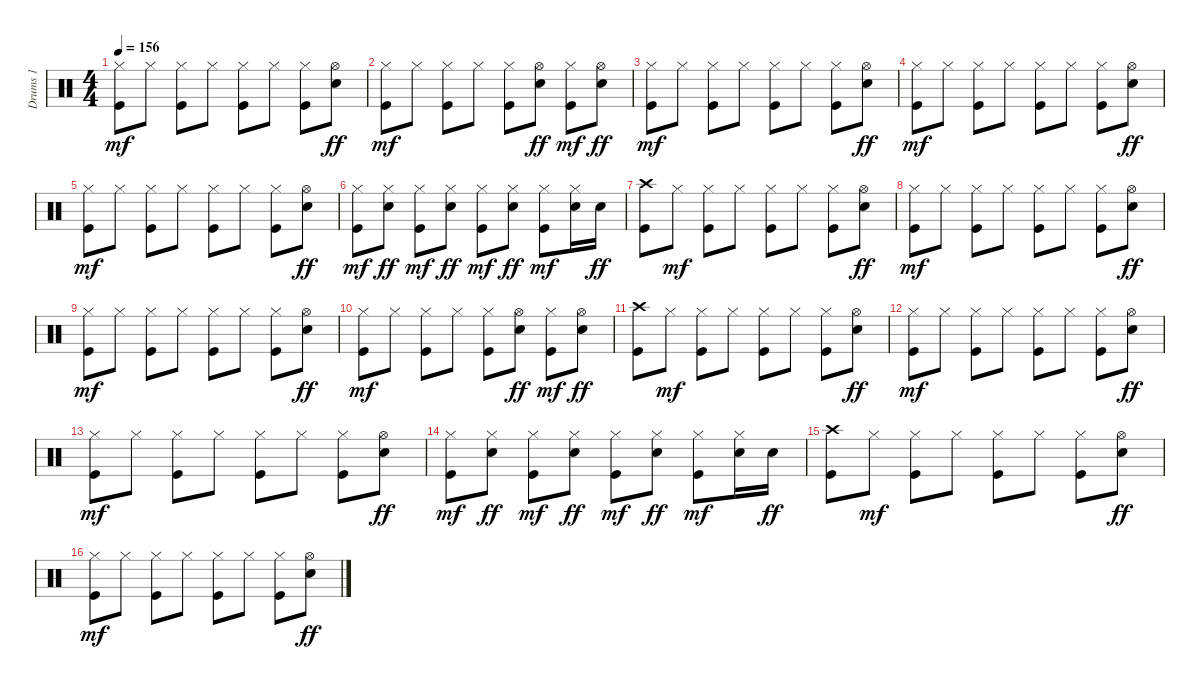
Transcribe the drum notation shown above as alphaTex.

\track ("Drums 1" "Drums 1") {instrument percussion}
\staff {score}
\articulation defaults
\ts (4 4)
\tempo 156
\clef neutral
\ks c
("Kick (hit)" "Hi-Hat (closed)").8{dy mf} "Hi-Hat (closed)".8 ("Kick (hit)" "Hi-Hat (closed)").8 "Hi-Hat (closed)".8 ("Kick (hit)" "Hi-Hat (closed)").8 "Hi-Hat (closed)".8 ("Kick (hit)" "Hi-Hat (closed)").8 ("Electric Snare (hit)" "Hi-Hat (open)").8{dy ff} |
("Kick (hit)" "Hi-Hat (closed)").8{dy mf} "Hi-Hat (closed)".8 ("Kick (hit)" "Hi-Hat (closed)").8 "Hi-Hat (closed)".8 ("Kick (hit)" "Hi-Hat (closed)").8 ("Hi-Hat (open)" "Electric Snare (hit)").8{dy ff} ("Kick (hit)" "Hi-Hat (closed)").8{dy mf} ("Hi-Hat (open)" "Electric Snare (hit)").8{dy ff} |
("Kick (hit)" "Hi-Hat (closed)").8{dy mf} "Hi-Hat (closed)".8 ("Kick (hit)" "Hi-Hat (closed)").8 "Hi-Hat (closed)".8 ("Kick (hit)" "Hi-Hat (closed)").8 "Hi-Hat (closed)".8 ("Kick (hit)" "Hi-Hat (closed)").8 ("Electric Snare (hit)" "Hi-Hat (open)").8{dy ff} |
("Kick (hit)" "Hi-Hat (closed)").8{dy mf} "Hi-Hat (closed)".8 ("Kick (hit)" "Hi-Hat (closed)").8 "Hi-Hat (closed)".8 ("Kick (hit)" "Hi-Hat (closed)").8 "Hi-Hat (closed)".8 ("Kick (hit)" "Hi-Hat (closed)").8 ("Electric Snare (hit)" "Hi-Hat (open)").8{dy ff} |
("Kick (hit)" "Hi-Hat (closed)").8{dy mf} "Hi-Hat (closed)".8 ("Kick (hit)" "Hi-Hat (closed)").8 "Hi-Hat (closed)".8 ("Kick (hit)" "Hi-Hat (closed)").8 "Hi-Hat (closed)".8 ("Kick (hit)" "Hi-Hat (closed)").8 ("Electric Snare (hit)" "Hi-Hat (open)").8{dy ff} |
("Kick (hit)" "Hi-Hat (closed)").8{dy mf} ("Hi-Hat (closed)" "Electric Snare (hit)").8{dy ff} ("Kick (hit)" "Hi-Hat (closed)").8{dy mf} ("Hi-Hat (closed)" "Electric Snare (hit)").8{dy ff} ("Kick (hit)" "Hi-Hat (closed)").8{dy mf} ("Hi-Hat (closed)" "Electric Snare (hit)").8{dy ff} ("Kick (hit)" "Hi-Hat (closed)").8{dy mf} ("Electric Snare (hit)" "Hi-Hat (closed)").16 "Electric Snare (hit)".16{dy ff} |
("Kick (hit)" "Crash high (hit)").8 "Hi-Hat (closed)".8{dy mf} ("Kick (hit)" "Hi-Hat (closed)").8 "Hi-Hat (closed)".8 ("Kick (hit)" "Hi-Hat (closed)").8 "Hi-Hat (closed)".8 ("Kick (hit)" "Hi-Hat (closed)").8 ("Electric Snare (hit)" "Hi-Hat (open)").8{dy ff} |
("Kick (hit)" "Hi-Hat (closed)").8{dy mf} "Hi-Hat (closed)".8 ("Kick (hit)" "Hi-Hat (closed)").8 "Hi-Hat (closed)".8 ("Kick (hit)" "Hi-Hat (closed)").8 "Hi-Hat (closed)".8 ("Kick (hit)" "Hi-Hat (closed)").8 ("Electric Snare (hit)" "Hi-Hat (open)").8{dy ff} |
("Kick (hit)" "Hi-Hat (closed)").8{dy mf} "Hi-Hat (closed)".8 ("Kick (hit)" "Hi-Hat (closed)").8 "Hi-Hat (closed)".8 ("Kick (hit)" "Hi-Hat (closed)").8 "Hi-Hat (closed)".8 ("Kick (hit)" "Hi-Hat (closed)").8 ("Electric Snare (hit)" "Hi-Hat (open)").8{dy ff} |
("Kick (hit)" "Hi-Hat (closed)").8{dy mf} "Hi-Hat (closed)".8 ("Kick (hit)" "Hi-Hat (closed)").8 "Hi-Hat (closed)".8 ("Kick (hit)" "Hi-Hat (closed)").8 ("Hi-Hat (open)" "Electric Snare (hit)").8{dy ff} ("Kick (hit)" "Hi-Hat (closed)").8{dy mf} ("Hi-Hat (open)" "Electric Snare (hit)").8{dy ff} |
("Kick (hit)" "Crash high (hit)").8 "Hi-Hat (closed)".8{dy mf} ("Kick (hit)" "Hi-Hat (closed)").8 "Hi-Hat (closed)".8 ("Kick (hit)" "Hi-Hat (closed)").8 "Hi-Hat (closed)".8 ("Kick (hit)" "Hi-Hat (closed)").8 ("Electric Snare (hit)" "Hi-Hat (open)").8{dy ff} |
("Kick (hit)" "Hi-Hat (closed)").8{dy mf} "Hi-Hat (closed)".8 ("Kick (hit)" "Hi-Hat (closed)").8 "Hi-Hat (closed)".8 ("Kick (hit)" "Hi-Hat (closed)").8 "Hi-Hat (closed)".8 ("Kick (hit)" "Hi-Hat (closed)").8 ("Electric Snare (hit)" "Hi-Hat (open)").8{dy ff} |
("Kick (hit)" "Hi-Hat (closed)").8{dy mf} "Hi-Hat (closed)".8 ("Kick (hit)" "Hi-Hat (closed)").8 "Hi-Hat (closed)".8 ("Kick (hit)" "Hi-Hat (closed)").8 "Hi-Hat (closed)".8 ("Kick (hit)" "Hi-Hat (closed)").8 ("Electric Snare (hit)" "Hi-Hat (open)").8{dy ff} |
("Kick (hit)" "Hi-Hat (closed)").8{dy mf} ("Hi-Hat (closed)" "Electric Snare (hit)").8{dy ff} ("Kick (hit)" "Hi-Hat (closed)").8{dy mf} ("Hi-Hat (closed)" "Electric Snare (hit)").8{dy ff} ("Kick (hit)" "Hi-Hat (closed)").8{dy mf} ("Hi-Hat (closed)" "Electric Snare (hit)").8{dy ff} ("Kick (hit)" "Hi-Hat (closed)").8{dy mf} ("Electric Snare (hit)" "Hi-Hat (closed)").16 "Electric Snare (hit)".16{dy ff} |
("Kick (hit)" "Crash high (hit)").8 "Hi-Hat (closed)".8{dy mf} ("Kick (hit)" "Hi-Hat (closed)").8 "Hi-Hat (closed)".8 ("Kick (hit)" "Hi-Hat (closed)").8 "Hi-Hat (closed)".8 ("Kick (hit)" "Hi-Hat (closed)").8 ("Electric Snare (hit)" "Hi-Hat (open)").8{dy ff} |
("Kick (hit)" "Hi-Hat (closed)").8{dy mf} "Hi-Hat (closed)".8 ("Kick (hit)" "Hi-Hat (closed)").8 "Hi-Hat (closed)".8 ("Kick (hit)" "Hi-Hat (closed)").8 "Hi-Hat (closed)".8 ("Kick (hit)" "Hi-Hat (closed)").8 ("Electric Snare (hit)" "Hi-Hat (open)").8{dy ff}
